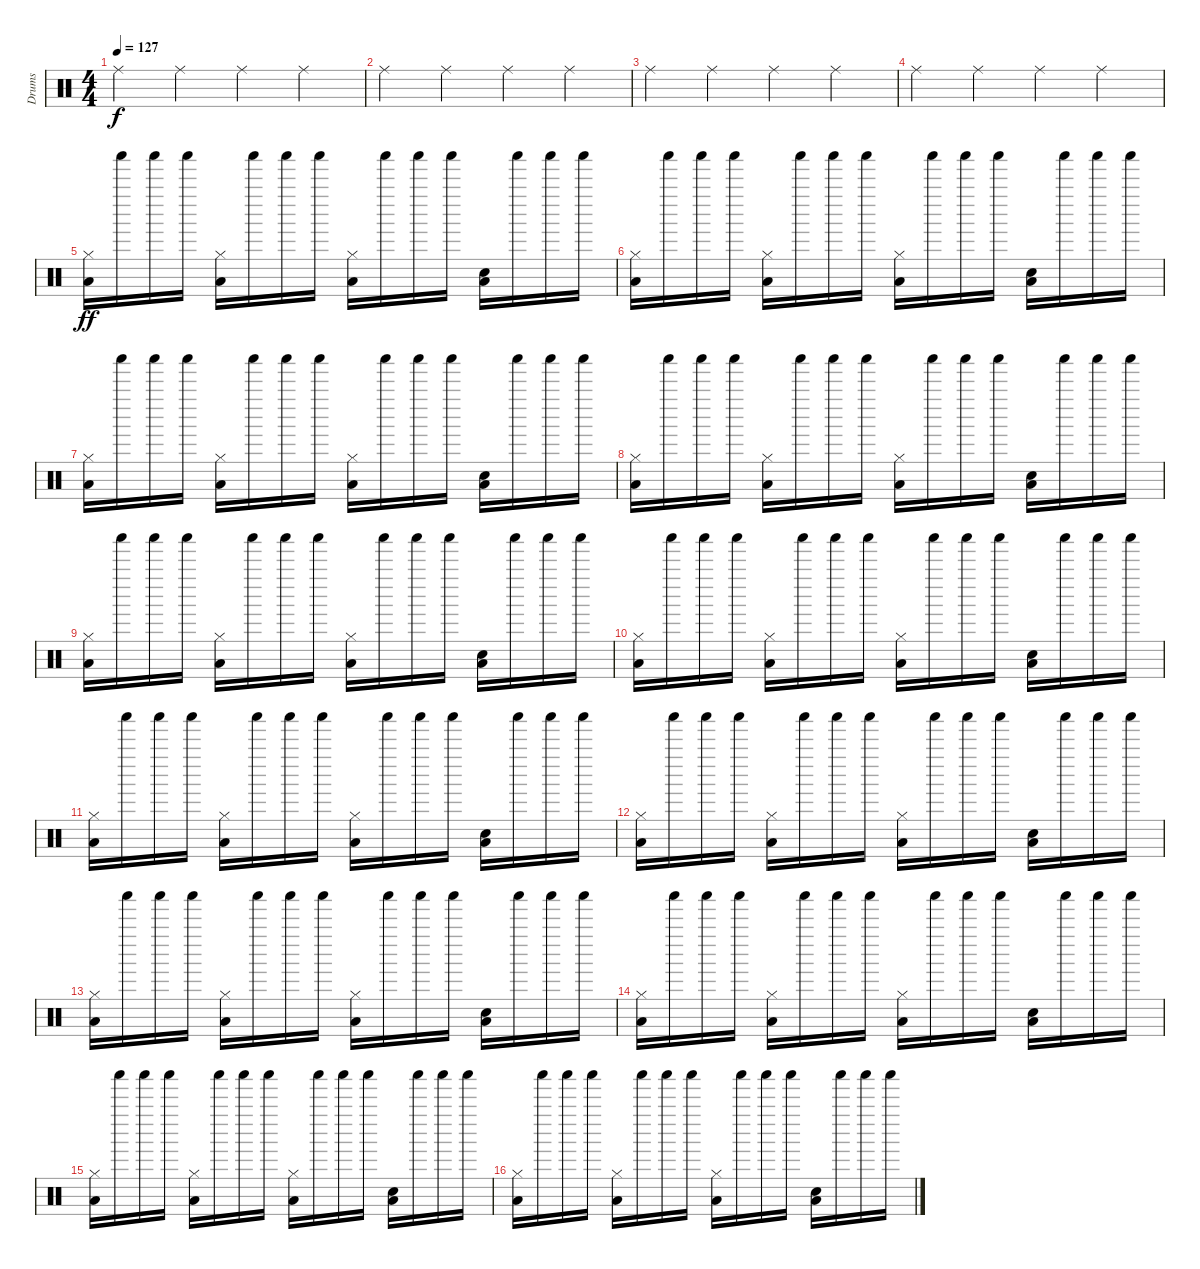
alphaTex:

\track ("Drums" "Drums") {instrument percussion}
\staff {score}
\articulation defaults
\ts (4 4)
\tempo 127
\clef neutral
\ks c "Ride (middle)".4{dy f} "Ride (middle)".4 "Ride (middle)".4 "Ride (middle)".4
|
"Ride (middle)".4 "Ride (middle)".4 "Ride (middle)".4 "Ride (middle)".4 |
"Ride (middle)".4 "Ride (middle)".4 "Ride (middle)".4 "Ride (middle)".4 |
"Ride (middle)".4 "Ride (middle)".4 "Ride (middle)".4 "Ride (middle)".4 |
("Hi-Hat (closed)" "Low Tom (hit)").16{dy ff} "Shaker (hit)".16 "Shaker (hit)".16 "Shaker (hit)".16 ("Hi-Hat (closed)" "Low Tom (hit)").16 "Shaker (hit)".16 "Shaker (hit)".16 "Shaker (hit)".16 ("Hi-Hat (closed)" "Low Tom (hit)").16 "Shaker (hit)".16 "Shaker (hit)".16 "Shaker (hit)".16 ("Hand Clap (hit)" "Low Tom (hit)").16 "Shaker (hit)".16 "Shaker (hit)".16 "Shaker (hit)".16 |
("Hi-Hat (closed)" "Low Tom (hit)").16 "Shaker (hit)".16 "Shaker (hit)".16 "Shaker (hit)".16 ("Hi-Hat (closed)" "Low Tom (hit)").16 "Shaker (hit)".16 "Shaker (hit)".16 "Shaker (hit)".16 ("Hi-Hat (closed)" "Low Tom (hit)").16 "Shaker (hit)".16 "Shaker (hit)".16 "Shaker (hit)".16 ("Hand Clap (hit)" "Low Tom (hit)").16 "Shaker (hit)".16 "Shaker (hit)".16 "Shaker (hit)".16 |
("Hi-Hat (closed)" "Low Tom (hit)").16 "Shaker (hit)".16 "Shaker (hit)".16 "Shaker (hit)".16 ("Hi-Hat (closed)" "Low Tom (hit)").16 "Shaker (hit)".16 "Shaker (hit)".16 "Shaker (hit)".16 ("Hi-Hat (closed)" "Low Tom (hit)").16 "Shaker (hit)".16 "Shaker (hit)".16 "Shaker (hit)".16 ("Hand Clap (hit)" "Low Tom (hit)").16 "Shaker (hit)".16 "Shaker (hit)".16 "Shaker (hit)".16 |
("Hi-Hat (closed)" "Low Tom (hit)").16 "Shaker (hit)".16 "Shaker (hit)".16 "Shaker (hit)".16 ("Hi-Hat (closed)" "Low Tom (hit)").16 "Shaker (hit)".16 "Shaker (hit)".16 "Shaker (hit)".16 ("Hi-Hat (closed)" "Low Tom (hit)").16 "Shaker (hit)".16 "Shaker (hit)".16 "Shaker (hit)".16 ("Hand Clap (hit)" "Low Tom (hit)").16 "Shaker (hit)".16 "Shaker (hit)".16 "Shaker (hit)".16 |
("Hi-Hat (closed)" "Low Tom (hit)").16 "Shaker (hit)".16 "Shaker (hit)".16 "Shaker (hit)".16 ("Hi-Hat (closed)" "Low Tom (hit)").16 "Shaker (hit)".16 "Shaker (hit)".16 "Shaker (hit)".16 ("Hi-Hat (closed)" "Low Tom (hit)").16 "Shaker (hit)".16 "Shaker (hit)".16 "Shaker (hit)".16 ("Hand Clap (hit)" "Low Tom (hit)").16 "Shaker (hit)".16 "Shaker (hit)".16 "Shaker (hit)".16 |
("Hi-Hat (closed)" "Low Tom (hit)").16 "Shaker (hit)".16 "Shaker (hit)".16 "Shaker (hit)".16 ("Hi-Hat (closed)" "Low Tom (hit)").16 "Shaker (hit)".16 "Shaker (hit)".16 "Shaker (hit)".16 ("Hi-Hat (closed)" "Low Tom (hit)").16 "Shaker (hit)".16 "Shaker (hit)".16 "Shaker (hit)".16 ("Hand Clap (hit)" "Low Tom (hit)").16 "Shaker (hit)".16 "Shaker (hit)".16 "Shaker (hit)".16 |
("Hi-Hat (closed)" "Low Tom (hit)").16 "Shaker (hit)".16 "Shaker (hit)".16 "Shaker (hit)".16 ("Hi-Hat (closed)" "Low Tom (hit)").16 "Shaker (hit)".16 "Shaker (hit)".16 "Shaker (hit)".16 ("Hi-Hat (closed)" "Low Tom (hit)").16 "Shaker (hit)".16 "Shaker (hit)".16 "Shaker (hit)".16 ("Hand Clap (hit)" "Low Tom (hit)").16 "Shaker (hit)".16 "Shaker (hit)".16 "Shaker (hit)".16 |
("Hi-Hat (closed)" "Low Tom (hit)").16 "Shaker (hit)".16 "Shaker (hit)".16 "Shaker (hit)".16 ("Hi-Hat (closed)" "Low Tom (hit)").16 "Shaker (hit)".16 "Shaker (hit)".16 "Shaker (hit)".16 ("Hi-Hat (closed)" "Low Tom (hit)").16 "Shaker (hit)".16 "Shaker (hit)".16 "Shaker (hit)".16 ("Hand Clap (hit)" "Low Tom (hit)").16 "Shaker (hit)".16 "Shaker (hit)".16 "Shaker (hit)".16 |
("Hi-Hat (closed)" "Low Tom (hit)").16 "Shaker (hit)".16 "Shaker (hit)".16 "Shaker (hit)".16 ("Hi-Hat (closed)" "Low Tom (hit)").16 "Shaker (hit)".16 "Shaker (hit)".16 "Shaker (hit)".16 ("Hi-Hat (closed)" "Low Tom (hit)").16 "Shaker (hit)".16 "Shaker (hit)".16 "Shaker (hit)".16 ("Hand Clap (hit)" "Low Tom (hit)").16 "Shaker (hit)".16 "Shaker (hit)".16 "Shaker (hit)".16 |
("Hi-Hat (closed)" "Low Tom (hit)").16 "Shaker (hit)".16 "Shaker (hit)".16 "Shaker (hit)".16 ("Hi-Hat (closed)" "Low Tom (hit)").16 "Shaker (hit)".16 "Shaker (hit)".16 "Shaker (hit)".16 ("Hi-Hat (closed)" "Low Tom (hit)").16 "Shaker (hit)".16 "Shaker (hit)".16 "Shaker (hit)".16 ("Hand Clap (hit)" "Low Tom (hit)").16 "Shaker (hit)".16 "Shaker (hit)".16 "Shaker (hit)".16 |
("Hi-Hat (closed)" "Low Tom (hit)").16 "Shaker (hit)".16 "Shaker (hit)".16 "Shaker (hit)".16 ("Hi-Hat (closed)" "Low Tom (hit)").16 "Shaker (hit)".16 "Shaker (hit)".16 "Shaker (hit)".16 ("Hi-Hat (closed)" "Low Tom (hit)").16 "Shaker (hit)".16 "Shaker (hit)".16 "Shaker (hit)".16 ("Hand Clap (hit)" "Low Tom (hit)").16 "Shaker (hit)".16 "Shaker (hit)".16 "Shaker (hit)".16 |
("Hi-Hat (closed)" "Low Tom (hit)").16 "Shaker (hit)".16 "Shaker (hit)".16 "Shaker (hit)".16 ("Hi-Hat (closed)" "Low Tom (hit)").16 "Shaker (hit)".16 "Shaker (hit)".16 "Shaker (hit)".16 ("Hi-Hat (closed)" "Low Tom (hit)").16 "Shaker (hit)".16 "Shaker (hit)".16 "Shaker (hit)".16 ("Hand Clap (hit)" "Low Tom (hit)").16 "Shaker (hit)".16 "Shaker (hit)".16 "Shaker (hit)".16
